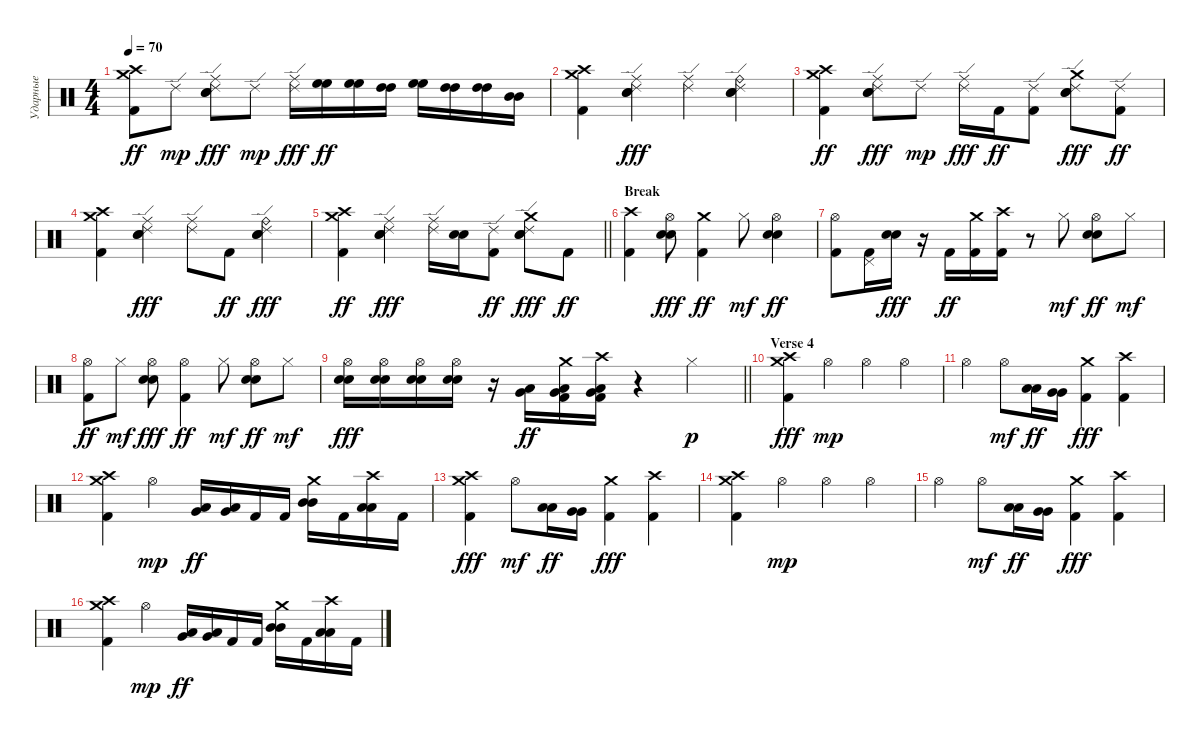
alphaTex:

\track ("Ударные" "Ударные") {instrument percussion}
\staff {score}
\articulation defaults
\ts (4 4)
\tempo 70
\clef neutral
\ks aminor
("Crash high (hit)" "Crash medium (hit)" "Kick (hit) 2").8{dy ff} "Ride (edge) 2".8{dy mp} ("Ride (edge) 2" "Ride (middle)" "Snare (hit) 2" "Electric Snare (hit)").8{dy fff} "Ride (edge) 2".8{dy mp} ("Ride (edge) 2" "Ride (middle)").16{dy fff} ("High Floor Tom (hit)" "High Floor Tom (hit)").16{dy ff} ("High Floor Tom (hit)" "High Floor Tom (hit)").16 ("High Tom (hit)" "High Tom (hit)").16 ("High Floor Tom (hit)" "High Floor Tom (hit)").16 ("High Tom (hit)" "High Tom (hit)").16 ("High Tom (hit)" "High Tom (hit)").16 ("Mid Tom (hit)" "Mid Tom (hit)").16 |
("Crash high (hit)" "Crash medium (hit)" "Kick (hit) 2").4 ("Ride (edge) 2" "Ride (middle)" "Snare (hit) 2" "Electric Snare (hit)").4{dy fff} ("Ride (edge) 2" "Ride (middle)").4 ("Ride (bell)" "Ride (edge) 2" "Snare (hit) 2" "Electric Snare (hit)").4 |
("Crash high (hit)" "Crash medium (hit)" "Kick (hit) 2").4{dy ff} ("Ride (edge) 2" "Ride (middle)" "Snare (hit) 2" "Electric Snare (hit)").8{dy fff} "Ride (edge) 2".8{dy mp} ("Ride (edge) 2" "Ride (middle)").16{dy fff} "Kick (hit) 2".16{dy ff} ("Ride (edge) 2" "Kick (hit) 2").8 ("Ride (edge) 2" "Crash medium (hit)" "Snare (hit) 2" "Electric Snare (hit)").8{dy fff} ("Ride (edge) 2" "Kick (hit) 2").8{dy ff} |
("Crash high (hit)" "Crash medium (hit)" "Kick (hit) 2").4 ("Ride (edge) 2" "Ride (middle)" "Snare (hit) 2" "Electric Snare (hit)").4{dy fff} ("Ride (edge) 2" "Ride (middle)").8 "Kick (hit) 2".8{dy ff} ("Ride (bell)" "Ride (edge) 2" "Snare (hit) 2" "Electric Snare (hit)").4{dy fff} |
\barLineRight lightlight
("Crash medium (hit)" "Crash high (hit)" "Kick (hit) 2").4{dy ff} ("Ride (edge) 2" "Ride (middle)" "Snare (hit) 2" "Electric Snare (hit)").4{dy fff} ("Ride (edge) 2" "Ride (middle)").16 ("Snare (hit) 2" "Electric Snare (hit)").16 ("Ride (edge) 2" "Kick (hit) 2").8{dy ff} ("Ride (edge) 2" "Crash medium (hit)" "Snare (hit) 2" "Electric Snare (hit)").8{dy fff} "Kick (hit) 2".8{dy ff} |
\section ("" "Break")
("Crash high (hit)" "Kick (hit) 2").4 ("Hi-Hat (open)" "Snare (hit) 2" "Electric Snare (hit)").8{dy fff} ("Crash medium (hit)" "Kick (hit) 2").4{dy ff} "Hi-Hat (closed)".8{dy mf} ("Hi-Hat (open)" "Snare (hit) 2" "Electric Snare (hit)").4{dy ff} |
("Hi-Hat (open)" "Kick (hit) 2").8 ("Pedal Hi-Hat (hit)" "Kick (hit) 2").16 ("Snare (hit) 2" "Electric Snare (hit)").16{dy fff} r.16 "Kick (hit) 2".16{dy ff} ("Crash medium (hit)" "Kick (hit) 2").16 ("Crash high (hit)" "Kick (hit) 2").16 r.8 "Hi-Hat (closed)".8{dy mf} ("Hi-Hat (open)" "Snare (hit) 2" "Electric Snare (hit)").8{dy ff} "Hi-Hat (closed)".8{dy mf} |
("Hi-Hat (open)" "Kick (hit) 2").8{dy ff} "Hi-Hat (closed)".8{dy mf} ("Hi-Hat (open)" "Snare (hit) 2" "Electric Snare (hit)").8{dy fff} ("Hi-Hat (open)" "Kick (hit) 2").4{dy ff} "Hi-Hat (closed)".8{dy mf} ("Hi-Hat (open)" "Snare (hit) 2" "Electric Snare (hit)").8{dy ff} "Hi-Hat (closed)".8{dy mf} |
\barLineRight lightlight
("Hi-Hat (open)" "Snare (hit) 2" "Electric Snare (hit)").16{dy fff} ("Hi-Hat (open)" "Snare (hit) 2" "Electric Snare (hit)").16 ("Hi-Hat (open)" "Snare (hit) 2" "Electric Snare (hit)").16 ("Hi-Hat (open)" "Snare (hit) 2" "Electric Snare (hit)").16 r.16 ("Low Tom (hit)" "Very Low Tom (hit)").16{dy ff} ("Crash medium (hit)" "Low Tom (hit)" "Very Low Tom (hit)" "Kick (hit) 2").16 ("Crash high (hit)" "Low Tom (hit)" "Very Low Tom (hit)" "Kick (hit) 2").16 r.4 "Hi-Hat (closed)".4{dy p} |
\section ("" "Verse 4")
("Crash medium (hit)" "Crash high (hit)" "Kick (hit) 2").4{dy fff} "Hi-Hat (open)".4{dy mp} "Hi-Hat (open)".4 "Hi-Hat (open)".4 |
"Hi-Hat (open)".4 "Hi-Hat (open)".8{dy mf} ("Low Tom (hit)" "Low Tom (hit)").16{dy ff} ("Very Low Tom (hit)" "Very Low Tom (hit)").16 ("Crash medium (hit)" "Kick (hit) 2").4{dy fff} ("Crash high (hit)" "Kick (hit) 2").4 |
("Crash medium (hit)" "Crash high (hit)" "Kick (hit) 2").4 "Hi-Hat (open)".4{dy mp} ("Low Tom (hit)" "Very Low Tom (hit)").16{dy ff} ("Low Tom (hit)" "Very Low Tom (hit)").16 "Kick (hit) 2".16 "Kick (hit) 2".16 ("Crash medium (hit)" "Mid Tom (hit)" "Mid Tom (hit)").16 "Kick (hit) 2".16 ("Crash high (hit)" "Low Tom (hit)" "Low Tom (hit)").16 "Kick (hit) 2".16 |
("Crash medium (hit)" "Crash high (hit)" "Kick (hit) 2").4{dy fff} "Hi-Hat (open)".8{dy mf} ("Low Tom (hit)" "Low Tom (hit)").16{dy ff} ("Very Low Tom (hit)" "Very Low Tom (hit)").16 ("Crash medium (hit)" "Kick (hit) 2").4{dy fff} ("Crash high (hit)" "Kick (hit) 2").4 |
("Crash medium (hit)" "Crash high (hit)" "Kick (hit) 2").4 "Hi-Hat (open)".4{dy mp} "Hi-Hat (open)".4 "Hi-Hat (open)".4 |
"Hi-Hat (open)".4 "Hi-Hat (open)".8{dy mf} ("Low Tom (hit)" "Low Tom (hit)").16{dy ff} ("Very Low Tom (hit)" "Very Low Tom (hit)").16 ("Crash medium (hit)" "Kick (hit) 2").4{dy fff} ("Crash high (hit)" "Kick (hit) 2").4 |
("Crash medium (hit)" "Crash high (hit)" "Kick (hit) 2").4 "Hi-Hat (open)".4{dy mp} ("Low Tom (hit)" "Very Low Tom (hit)").16{dy ff} ("Low Tom (hit)" "Very Low Tom (hit)").16 "Kick (hit) 2".16 "Kick (hit) 2".16 ("Crash medium (hit)" "Mid Tom (hit)" "Mid Tom (hit)").16 "Kick (hit) 2".16 ("Crash high (hit)" "Low Tom (hit)" "Low Tom (hit)").16 "Kick (hit) 2".16
